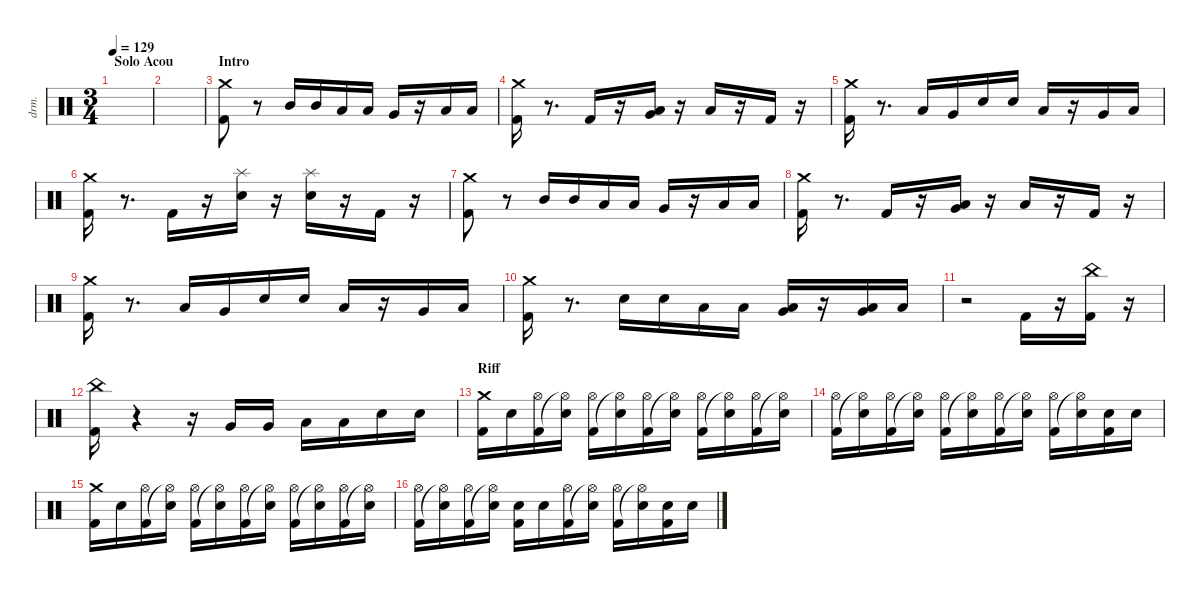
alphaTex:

\defaultSystemsLayout 4
\hideDynamics
\bracketExtendMode nobrackets
\otherSystemsTrackNameOrientation horizontal
\track ("Drumkit" "drm.") {instrument percussion}
\staff {score}
\articulation defaults
\ts (3 4)
\beaming (8 2 2 2)
\section ("" "Solo Acou")
\tempo 129
\clef neutral
\ks c
|
|
\section ("" "Intro")
("Kick (hit) 2" "Crash medium (hit)").8 r.8 "Mid Tom (hit)".16 "Mid Tom (hit)".16 "Low Tom (hit)".16 "Low Tom (hit)".16 "Very Low Tom (hit)".16 r.16 "Low Floor Tom (hit)".16 "Low Floor Tom (hit)".16 |
("Kick (hit) 2" "Crash medium (hit)").16 r.8{d} "Kick (hit) 2".16 r.16 ("Low Floor Tom (hit)" "Very Low Tom (hit)").16 r.16 "Low Floor Tom (hit)".16 r.16 "Kick (hit) 2".16 r.16 |
("Kick (hit) 2" "Crash medium (hit)").16 r.8{d} "Low Tom (hit)".16 "Very Low Tom (hit)".16 "Snare (hit) 2".16 "Snare (hit) 2".16 "Low Tom (hit)".16 r.16 "Very Low Tom (hit)".16 "Low Floor Tom (hit)".16 |
("Kick (hit) 2" "Crash medium (hit)").16 r.8{d} "Kick (hit) 2".16 r.16 ("Snare (hit) 2" "Splash (hit)").16 r.16 ("Snare (hit) 2" "Splash (hit)").16 r.16 "Kick (hit) 2".16 r.16 |
("Kick (hit) 2" "Crash medium (hit)").8 r.8 "Mid Tom (hit)".16 "Mid Tom (hit)".16 "Low Tom (hit)".16 "Low Tom (hit)".16 "Very Low Tom (hit)".16 r.16 "Low Floor Tom (hit)".16 "Low Floor Tom (hit)".16 |
("Kick (hit) 2" "Crash medium (hit)").16 r.8{d} "Kick (hit) 2".16 r.16 ("Low Floor Tom (hit)" "Very Low Tom (hit)").16 r.16 "Low Floor Tom (hit)".16 r.16 "Kick (hit) 2".16 r.16 |
("Kick (hit) 2" "Crash medium (hit)").16 r.8{d} "Low Tom (hit)".16 "Very Low Tom (hit)".16 "Snare (hit) 2".16 "Snare (hit) 2".16 "Low Tom (hit)".16 r.16 "Very Low Tom (hit)".16 "Low Floor Tom (hit)".16 |
("Kick (hit) 2" "Crash medium (hit)").16 r.8{d} "Snare (hit) 2".16 "Snare (hit) 2".16 "Low Tom (hit)".16 "Low Tom (hit)".16 ("Very Low Tom (hit)" "Low Tom (hit)").16 r.16 ("Low Floor Tom (hit)" "Very Low Tom (hit)").16 "Low Floor Tom (hit)".16 |
r.2 "Kick (hit) 2".16 r.16 ("Kick (hit) 2" "China (hit)").16 r.16 |
("Kick (hit) 2" "China (hit)").16 r.4 r.16 "Very Low Tom (hit)".16 "Very Low Tom (hit)".16 "Low Floor Tom (hit)".16 "Low Floor Tom (hit)".16 "Snare (hit) 2".16 "Snare (hit) 2".16 |
\section ("" "Riff")
("Kick (hit) 2" "Crash medium (hit)").16 "Snare (hit) 2".16 ("Kick (hit) 2" "Hi-Hat (open)"{acc #}).16 ("Hi-Hat (open)"{t acc #} "Snare (hit) 2").16 ("Kick (hit) 2" "Hi-Hat (open)"{acc #}).16 ("Hi-Hat (open)"{t acc #} "Snare (hit) 2").16 ("Kick (hit) 2" "Hi-Hat (open)"{acc #}).16 ("Hi-Hat (open)"{t acc #} "Snare (hit) 2").16 ("Kick (hit) 2" "Hi-Hat (open)"{acc #}).16 ("Hi-Hat (open)"{t acc #} "Snare (hit) 2").16 ("Kick (hit) 2" "Hi-Hat (open)"{acc #}).16 ("Hi-Hat (open)"{t acc #} "Snare (hit) 2").16 |
("Kick (hit) 2" "Hi-Hat (open)"{acc #}).16 ("Hi-Hat (open)"{t acc #} "Snare (hit) 2").16 ("Kick (hit) 2" "Hi-Hat (open)"{acc #}).16 ("Hi-Hat (open)"{t acc #} "Snare (hit) 2").16 ("Kick (hit) 2" "Hi-Hat (open)"{acc #}).16 ("Hi-Hat (open)"{t acc #} "Snare (hit) 2").16 ("Kick (hit) 2" "Hi-Hat (open)"{acc #}).16 ("Hi-Hat (open)"{t acc #} "Snare (hit) 2").16 ("Kick (hit) 2" "Hi-Hat (open)"{acc #}).16 ("Hi-Hat (open)"{t acc #} "Snare (hit) 2").16 ("Kick (hit) 2" "Snare (hit) 2").16 "Snare (hit) 2".16 |
("Kick (hit) 2" "Crash medium (hit)").16 "Snare (hit) 2".16 ("Kick (hit) 2" "Hi-Hat (open)"{acc #}).16 ("Hi-Hat (open)"{t acc #} "Snare (hit) 2").16 ("Kick (hit) 2" "Hi-Hat (open)"{acc #}).16 ("Hi-Hat (open)"{t acc #} "Snare (hit) 2").16 ("Kick (hit) 2" "Hi-Hat (open)"{acc #}).16 ("Hi-Hat (open)"{t acc #} "Snare (hit) 2").16 ("Kick (hit) 2" "Hi-Hat (open)"{acc #}).16 ("Hi-Hat (open)"{t acc #} "Snare (hit) 2").16 ("Kick (hit) 2" "Hi-Hat (open)"{acc #}).16 ("Hi-Hat (open)"{t acc #} "Snare (hit) 2").16 |
("Kick (hit) 2" "Hi-Hat (open)"{acc #}).16 ("Hi-Hat (open)"{t acc #} "Snare (hit) 2").16 ("Kick (hit) 2" "Hi-Hat (open)"{acc #}).16 ("Hi-Hat (open)"{t acc #} "Snare (hit) 2").16 ("Kick (hit) 2" "Snare (hit) 2").16 "Snare (hit) 2".16 ("Kick (hit) 2" "Hi-Hat (open)"{acc #}).16 ("Hi-Hat (open)"{t acc #} "Snare (hit) 2").16 ("Kick (hit) 2" "Hi-Hat (open)"{acc #}).16 ("Hi-Hat (open)"{t acc #} "Snare (hit) 2").16 ("Kick (hit) 2" "Snare (hit) 2").16 "Snare (hit) 2".16
